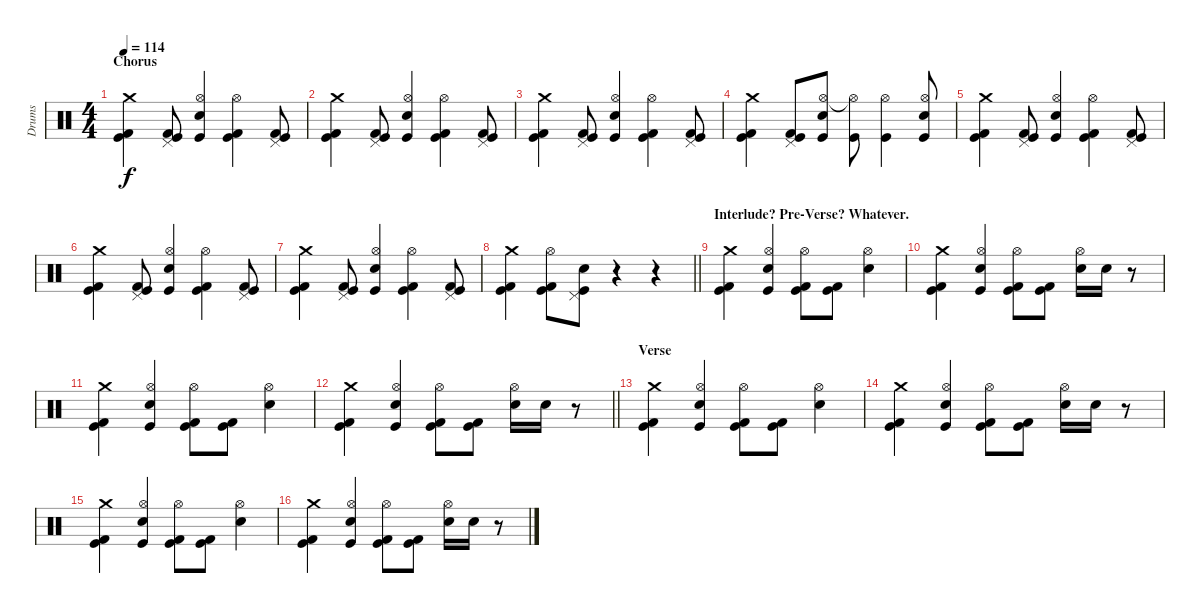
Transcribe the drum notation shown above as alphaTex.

\track ("Drums" "Drums") {instrument percussion}
\staff {score}
\articulation defaults
\ts (4 4)
\section ("" "Chorus")
\tempo 114
\clef neutral
\ks c
("Crash medium (hit)" "Kick (hit) 2" "Kick (hit)").4{dy f} ("Pedal Hi-Hat (hit)" "Kick (hit) 2" "Kick (hit)").8 ("Hi-Hat (open)" "Snare (hit) 2" "Kick (hit)").4 ("Hi-Hat (open)" "Kick (hit) 2" "Kick (hit)").4 ("Pedal Hi-Hat (hit)" "Kick (hit) 2" "Kick (hit)").8 |
("Crash medium (hit)" "Kick (hit) 2" "Kick (hit)").4 ("Pedal Hi-Hat (hit)" "Kick (hit) 2" "Kick (hit)").8 ("Hi-Hat (open)" "Snare (hit) 2" "Kick (hit)").4 ("Hi-Hat (open)" "Kick (hit) 2" "Kick (hit)").4 ("Pedal Hi-Hat (hit)" "Kick (hit) 2" "Kick (hit)").8 |
("Crash medium (hit)" "Kick (hit) 2" "Kick (hit)").4 ("Pedal Hi-Hat (hit)" "Kick (hit) 2" "Kick (hit)").8 ("Hi-Hat (open)" "Snare (hit) 2" "Kick (hit)").4 ("Hi-Hat (open)" "Kick (hit) 2" "Kick (hit)").4 ("Pedal Hi-Hat (hit)" "Kick (hit) 2" "Kick (hit)").8 |
("Crash medium (hit)" "Kick (hit) 2" "Kick (hit)").4 ("Pedal Hi-Hat (hit)" "Kick (hit) 2" "Kick (hit)").8 ("Hi-Hat (open)" "Snare (hit) 2" "Kick (hit)").8 ("Hi-Hat (open)"{t} "Kick (hit)").8 ("Hi-Hat (open)" "Kick (hit)").4 ("Hi-Hat (open)" "Snare (hit) 2" "Kick (hit)").8 |
("Crash medium (hit)" "Kick (hit) 2" "Kick (hit)").4 ("Pedal Hi-Hat (hit)" "Kick (hit) 2" "Kick (hit)").8 ("Hi-Hat (open)" "Snare (hit) 2" "Kick (hit)").4 ("Hi-Hat (open)" "Kick (hit) 2" "Kick (hit)").4 ("Pedal Hi-Hat (hit)" "Kick (hit) 2" "Kick (hit)").8 |
("Crash medium (hit)" "Kick (hit) 2" "Kick (hit)").4 ("Pedal Hi-Hat (hit)" "Kick (hit) 2" "Kick (hit)").8 ("Hi-Hat (open)" "Snare (hit) 2" "Kick (hit)").4 ("Hi-Hat (open)" "Kick (hit) 2" "Kick (hit)").4 ("Pedal Hi-Hat (hit)" "Kick (hit) 2" "Kick (hit)").8 |
("Crash medium (hit)" "Kick (hit) 2" "Kick (hit)").4 ("Pedal Hi-Hat (hit)" "Kick (hit) 2" "Kick (hit)").8 ("Hi-Hat (open)" "Snare (hit) 2" "Kick (hit)").4 ("Hi-Hat (open)" "Kick (hit) 2" "Kick (hit)").4 ("Pedal Hi-Hat (hit)" "Kick (hit) 2" "Kick (hit)").8 |
\barLineRight lightlight
("Crash medium (hit)" "Kick (hit) 2" "Kick (hit)").4 ("Hi-Hat (open)" "Kick (hit) 2" "Kick (hit)").8 ("Pedal Hi-Hat (hit)" "Snare (hit) 2" "Kick (hit)").8 r.4 r.4 |
\section ("" "Interlude? Pre-Verse? Whatever.")
("Crash medium (hit)" "Kick (hit) 2" "Kick (hit)").4 ("Hi-Hat (open)" "Snare (hit) 2" "Kick (hit)").4 ("Hi-Hat (open)" "Kick (hit) 2" "Kick (hit)").8 ("Kick (hit) 2" "Kick (hit)").8 ("Hi-Hat (open)" "Snare (hit) 2").4 |
("Crash medium (hit)" "Kick (hit) 2" "Kick (hit)").4 ("Hi-Hat (open)" "Snare (hit) 2" "Kick (hit)").4 ("Hi-Hat (open)" "Kick (hit) 2" "Kick (hit)").8 ("Kick (hit) 2" "Kick (hit)").8 ("Hi-Hat (open)" "Snare (hit) 2").16 "Snare (hit) 2".16 r.8 |
("Crash medium (hit)" "Kick (hit) 2" "Kick (hit)").4 ("Hi-Hat (open)" "Snare (hit) 2" "Kick (hit)").4 ("Hi-Hat (open)" "Kick (hit) 2" "Kick (hit)").8 ("Kick (hit) 2" "Kick (hit)").8 ("Hi-Hat (open)" "Snare (hit) 2").4 |
\barLineRight lightlight
("Crash medium (hit)" "Kick (hit) 2" "Kick (hit)").4 ("Hi-Hat (open)" "Snare (hit) 2" "Kick (hit)").4 ("Hi-Hat (open)" "Kick (hit) 2" "Kick (hit)").8 ("Kick (hit) 2" "Kick (hit)").8 ("Hi-Hat (open)" "Snare (hit) 2").16 "Snare (hit) 2".16 r.8 |
\section ("" "Verse")
("Crash medium (hit)" "Kick (hit) 2" "Kick (hit)").4 ("Hi-Hat (open)" "Snare (hit) 2" "Kick (hit)").4 ("Hi-Hat (open)" "Kick (hit) 2" "Kick (hit)").8 ("Kick (hit) 2" "Kick (hit)").8 ("Hi-Hat (open)" "Snare (hit) 2").4 |
("Crash medium (hit)" "Kick (hit) 2" "Kick (hit)").4 ("Hi-Hat (open)" "Snare (hit) 2" "Kick (hit)").4 ("Hi-Hat (open)" "Kick (hit) 2" "Kick (hit)").8 ("Kick (hit) 2" "Kick (hit)").8 ("Hi-Hat (open)" "Snare (hit) 2").16 "Snare (hit) 2".16 r.8 |
("Crash medium (hit)" "Kick (hit) 2" "Kick (hit)").4 ("Hi-Hat (open)" "Snare (hit) 2" "Kick (hit)").4 ("Hi-Hat (open)" "Kick (hit) 2" "Kick (hit)").8 ("Kick (hit) 2" "Kick (hit)").8 ("Hi-Hat (open)" "Snare (hit) 2").4 |
("Crash medium (hit)" "Kick (hit) 2" "Kick (hit)").4 ("Hi-Hat (open)" "Snare (hit) 2" "Kick (hit)").4 ("Hi-Hat (open)" "Kick (hit) 2" "Kick (hit)").8 ("Kick (hit) 2" "Kick (hit)").8 ("Hi-Hat (open)" "Snare (hit) 2").16 "Snare (hit) 2".16 r.8
